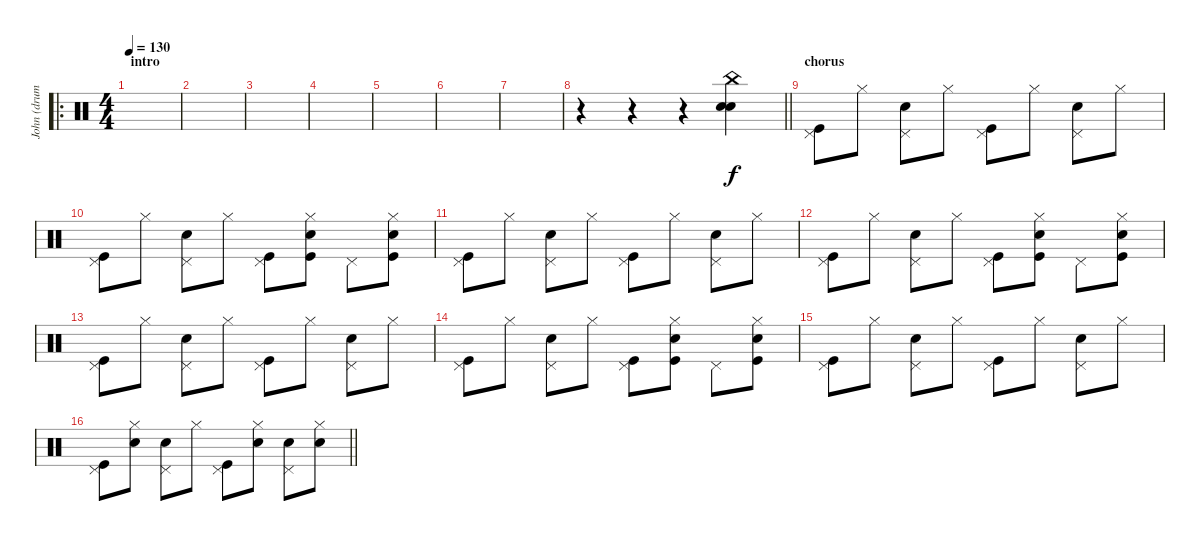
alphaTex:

\track ("John (drums)" "John (drum") {instrument percussion}
\staff {score}
\articulation defaults
\ro
\ts (4 4)
\section ("" "intro")
\tempo 130
\clef neutral
\ks c
|
|
|
|
|
|
|
\barLineRight lightlight
r.4 r.4 r.4 ("China (hit)" "Electric Snare (hit)" "Electric Snare (hit)").4 |
\section ("" "chorus")
("Pedal Hi-Hat (hit)" "Kick (hit)").8 "Hi-Hat (closed)".8 ("Pedal Hi-Hat (hit)" "Electric Snare (hit)").8 "Hi-Hat (closed)".8 ("Pedal Hi-Hat (hit)" "Kick (hit)").8 "Hi-Hat (closed)".8 ("Pedal Hi-Hat (hit)" "Electric Snare (hit)").8 "Hi-Hat (closed)".8 |
("Pedal Hi-Hat (hit)" "Kick (hit)").8 "Hi-Hat (closed)".8 ("Pedal Hi-Hat (hit)" "Electric Snare (hit)").8 "Hi-Hat (closed)".8 ("Pedal Hi-Hat (hit)" "Kick (hit)").8 ("Hi-Hat (closed)" "Electric Snare (hit)" "Kick (hit)").8 "Pedal Hi-Hat (hit)".8 ("Hi-Hat (closed)" "Electric Snare (hit)" "Kick (hit)").8 |
("Pedal Hi-Hat (hit)" "Kick (hit)").8 "Hi-Hat (closed)".8 ("Pedal Hi-Hat (hit)" "Electric Snare (hit)").8 "Hi-Hat (closed)".8 ("Pedal Hi-Hat (hit)" "Kick (hit)").8 "Hi-Hat (closed)".8 ("Pedal Hi-Hat (hit)" "Electric Snare (hit)").8 "Hi-Hat (closed)".8 |
("Pedal Hi-Hat (hit)" "Kick (hit)").8 "Hi-Hat (closed)".8 ("Pedal Hi-Hat (hit)" "Electric Snare (hit)").8 "Hi-Hat (closed)".8 ("Pedal Hi-Hat (hit)" "Kick (hit)").8 ("Hi-Hat (closed)" "Electric Snare (hit)" "Kick (hit)").8 "Pedal Hi-Hat (hit)".8 ("Hi-Hat (closed)" "Electric Snare (hit)" "Kick (hit)").8 |
("Pedal Hi-Hat (hit)" "Kick (hit)").8 "Hi-Hat (closed)".8 ("Pedal Hi-Hat (hit)" "Electric Snare (hit)").8 "Hi-Hat (closed)".8 ("Pedal Hi-Hat (hit)" "Kick (hit)").8 "Hi-Hat (closed)".8 ("Pedal Hi-Hat (hit)" "Electric Snare (hit)").8 "Hi-Hat (closed)".8 |
("Pedal Hi-Hat (hit)" "Kick (hit)").8 "Hi-Hat (closed)".8 ("Pedal Hi-Hat (hit)" "Electric Snare (hit)").8 "Hi-Hat (closed)".8 ("Pedal Hi-Hat (hit)" "Kick (hit)").8 ("Hi-Hat (closed)" "Electric Snare (hit)" "Kick (hit)").8 "Pedal Hi-Hat (hit)".8 ("Hi-Hat (closed)" "Electric Snare (hit)" "Kick (hit)").8 |
("Pedal Hi-Hat (hit)" "Kick (hit)").8 "Hi-Hat (closed)".8 ("Pedal Hi-Hat (hit)" "Electric Snare (hit)").8 "Hi-Hat (closed)".8 ("Pedal Hi-Hat (hit)" "Kick (hit)").8 "Hi-Hat (closed)".8 ("Pedal Hi-Hat (hit)" "Electric Snare (hit)").8 "Hi-Hat (closed)".8 |
\barLineRight lightlight
("Pedal Hi-Hat (hit)" "Kick (hit)").8 ("Hi-Hat (closed)" "Electric Snare (hit)").8 ("Pedal Hi-Hat (hit)" "Electric Snare (hit)").8 "Hi-Hat (closed)".8 ("Pedal Hi-Hat (hit)" "Kick (hit)").8 ("Hi-Hat (closed)" "Electric Snare (hit)").8 ("Pedal Hi-Hat (hit)" "Electric Snare (hit)").8 ("Hi-Hat (closed)" "Electric Snare (hit)").8
